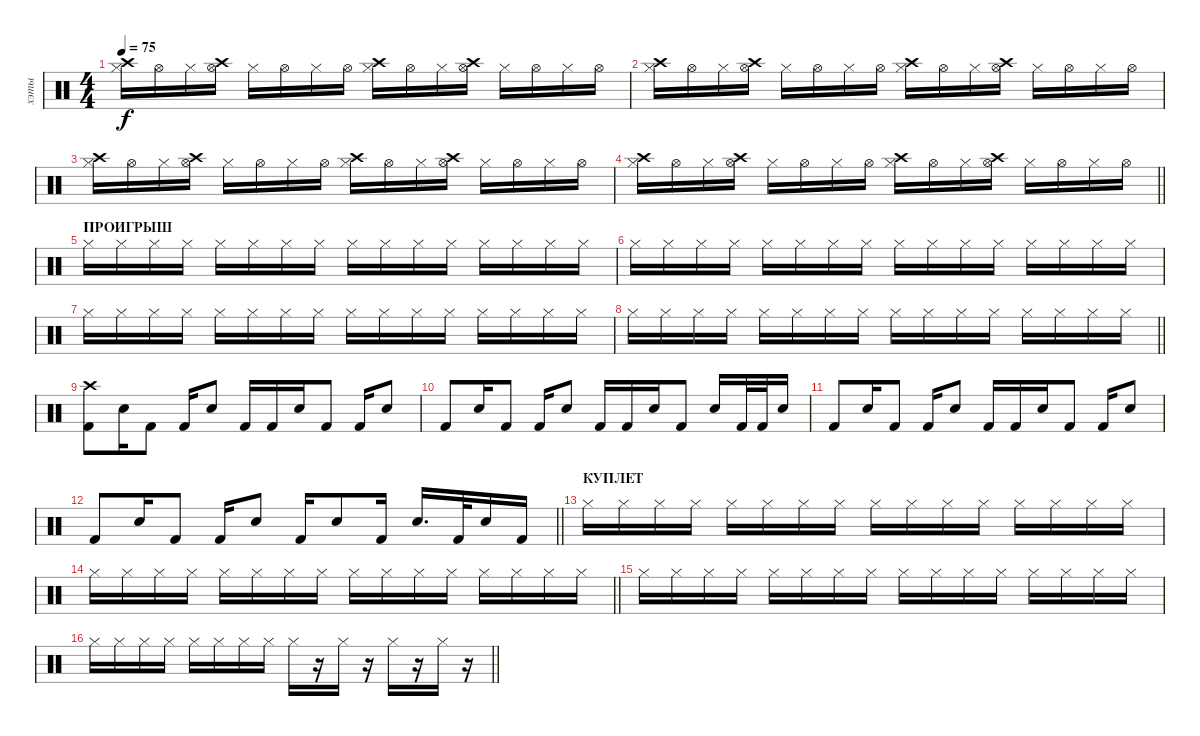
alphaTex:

\track ("хэты" "хэты") {instrument percussion}
\staff {score}
\articulation defaults
\ts (4 4)
\tempo 75
\clef neutral
\ks c
("Crash high (hit)" "Hi-Hat (closed)").16{dy f} "Hi-Hat (open)".16 "Hi-Hat (closed)".16 ("Hi-Hat (open)" "Crash high (hit)").16 "Hi-Hat (closed)".16 "Hi-Hat (open)".16 "Hi-Hat (closed)".16 "Hi-Hat (open)".16 ("Crash high (hit)" "Hi-Hat (closed)").16 "Hi-Hat (open)".16 "Hi-Hat (closed)".16 ("Hi-Hat (open)" "Crash high (hit)").16 "Hi-Hat (closed)".16 "Hi-Hat (open)".16 "Hi-Hat (closed)".16 "Hi-Hat (open)".16 |
("Crash high (hit)" "Hi-Hat (closed)").16 "Hi-Hat (open)".16 "Hi-Hat (closed)".16 ("Hi-Hat (open)" "Crash high (hit)").16 "Hi-Hat (closed)".16 "Hi-Hat (open)".16 "Hi-Hat (closed)".16 "Hi-Hat (open)".16 ("Crash high (hit)" "Hi-Hat (closed)").16 "Hi-Hat (open)".16 "Hi-Hat (closed)".16 ("Hi-Hat (open)" "Crash high (hit)").16 "Hi-Hat (closed)".16 "Hi-Hat (open)".16 "Hi-Hat (closed)".16 "Hi-Hat (open)".16 |
("Crash high (hit)" "Hi-Hat (closed)").16 "Hi-Hat (open)".16 "Hi-Hat (closed)".16 ("Hi-Hat (open)" "Crash high (hit)").16 "Hi-Hat (closed)".16 "Hi-Hat (open)".16 "Hi-Hat (closed)".16 "Hi-Hat (open)".16 ("Crash high (hit)" "Hi-Hat (closed)").16 "Hi-Hat (open)".16 "Hi-Hat (closed)".16 ("Hi-Hat (open)" "Crash high (hit)").16 "Hi-Hat (closed)".16 "Hi-Hat (open)".16 "Hi-Hat (closed)".16 "Hi-Hat (open)".16 |
\barLineRight lightlight
("Crash high (hit)" "Hi-Hat (closed)").16 "Hi-Hat (open)".16 "Hi-Hat (closed)".16 ("Hi-Hat (open)" "Crash high (hit)").16 "Hi-Hat (closed)".16 "Hi-Hat (open)".16 "Hi-Hat (closed)".16 "Hi-Hat (open)".16 ("Crash high (hit)" "Hi-Hat (closed)").16 "Hi-Hat (open)".16 "Hi-Hat (closed)".16 ("Hi-Hat (open)" "Crash high (hit)").16 "Hi-Hat (closed)".16 "Hi-Hat (open)".16 "Hi-Hat (closed)".16 "Hi-Hat (open)".16 |
\section ("" "ПРОИГРЫШ")
"Hi-Hat (closed)".16 "Hi-Hat (closed)".16 "Hi-Hat (closed)".16 "Hi-Hat (closed)".16 "Hi-Hat (closed)".16 "Hi-Hat (closed)".16 "Hi-Hat (closed)".16 "Hi-Hat (closed)".16 "Hi-Hat (closed)".16 "Hi-Hat (closed)".16 "Hi-Hat (closed)".16 "Hi-Hat (closed)".16 "Hi-Hat (closed)".16 "Hi-Hat (closed)".16 "Hi-Hat (closed)".16 "Hi-Hat (closed)".16 |
"Hi-Hat (closed)".16 "Hi-Hat (closed)".16 "Hi-Hat (closed)".16 "Hi-Hat (closed)".16 "Hi-Hat (closed)".16 "Hi-Hat (closed)".16 "Hi-Hat (closed)".16 "Hi-Hat (closed)".16 "Hi-Hat (closed)".16 "Hi-Hat (closed)".16 "Hi-Hat (closed)".16 "Hi-Hat (closed)".16 "Hi-Hat (closed)".16 "Hi-Hat (closed)".16 "Hi-Hat (closed)".16 "Hi-Hat (closed)".16 |
"Hi-Hat (closed)".16 "Hi-Hat (closed)".16 "Hi-Hat (closed)".16 "Hi-Hat (closed)".16 "Hi-Hat (closed)".16 "Hi-Hat (closed)".16 "Hi-Hat (closed)".16 "Hi-Hat (closed)".16 "Hi-Hat (closed)".16 "Hi-Hat (closed)".16 "Hi-Hat (closed)".16 "Hi-Hat (closed)".16 "Hi-Hat (closed)".16 "Hi-Hat (closed)".16 "Hi-Hat (closed)".16 "Hi-Hat (closed)".16 |
\barLineRight lightlight "Hi-Hat (closed)".16 "Hi-Hat (closed)".16 "Hi-Hat (closed)".16 "Hi-Hat (closed)".16 "Hi-Hat (closed)".16 "Hi-Hat (closed)".16 "Hi-Hat (closed)".16 "Hi-Hat (closed)".16 "Hi-Hat (closed)".16 "Hi-Hat (closed)".16 "Hi-Hat (closed)".16 "Hi-Hat (closed)".16 "Hi-Hat (closed)".16 "Hi-Hat (closed)".16 "Hi-Hat (closed)".16 "Hi-Hat (closed)".16
|
("Crash high (hit)" "Kick (hit) 2").8 "Electric Snare (hit)".16 "Kick (hit) 2".8 "Kick (hit) 2".16 "Electric Snare (hit)".8 "Kick (hit) 2".16 "Kick (hit) 2".16 "Electric Snare (hit)".16 "Kick (hit) 2".8 "Kick (hit) 2".16 "Electric Snare (hit)".8 |
"Kick (hit) 2".8 "Electric Snare (hit)".16 "Kick (hit) 2".8 "Kick (hit) 2".16 "Electric Snare (hit)".8 "Kick (hit) 2".16 "Kick (hit) 2".16 "Electric Snare (hit)".16 "Kick (hit) 2".8 "Electric Snare (hit)".16 "Kick (hit) 2".32 "Kick (hit) 2".32 "Electric Snare (hit)".16 |
"Kick (hit) 2".8 "Electric Snare (hit)".16 "Kick (hit) 2".8 "Kick (hit) 2".16 "Electric Snare (hit)".8 "Kick (hit) 2".16 "Kick (hit) 2".16 "Electric Snare (hit)".16 "Kick (hit) 2".8 "Kick (hit) 2".16 "Electric Snare (hit)".8 |
\barLineRight lightlight "Kick (hit) 2".8 "Electric Snare (hit)".16 "Kick (hit) 2".8 "Kick (hit) 2".16 "Electric Snare (hit)".8 "Kick (hit) 2".16 "Electric Snare (hit)".8 "Kick (hit) 2".16 "Electric Snare (hit)".16{d} "Kick (hit) 2".32 "Electric Snare (hit)".16 "Kick (hit) 2".16
|
\section ("" "КУПЛЕТ")
"Hi-Hat (closed)".16 "Hi-Hat (closed)".16 "Hi-Hat (closed)".16 "Hi-Hat (closed)".16 "Hi-Hat (closed)".16 "Hi-Hat (closed)".16 "Hi-Hat (closed)".16 "Hi-Hat (closed)".16 "Hi-Hat (closed)".16 "Hi-Hat (closed)".16 "Hi-Hat (closed)".16 "Hi-Hat (closed)".16 "Hi-Hat (closed)".16 "Hi-Hat (closed)".16 "Hi-Hat (closed)".16 "Hi-Hat (closed)".16 |
\barLineRight lightlight "Hi-Hat (closed)".16 "Hi-Hat (closed)".16 "Hi-Hat (closed)".16 "Hi-Hat (closed)".16 "Hi-Hat (closed)".16 "Hi-Hat (closed)".16 "Hi-Hat (closed)".16 "Hi-Hat (closed)".16 "Hi-Hat (closed)".16 "Hi-Hat (closed)".16 "Hi-Hat (closed)".16 "Hi-Hat (closed)".16 "Hi-Hat (closed)".16 "Hi-Hat (closed)".16 "Hi-Hat (closed)".16 "Hi-Hat (closed)".16
|
"Hi-Hat (closed)".16 "Hi-Hat (closed)".16 "Hi-Hat (closed)".16 "Hi-Hat (closed)".16 "Hi-Hat (closed)".16 "Hi-Hat (closed)".16 "Hi-Hat (closed)".16 "Hi-Hat (closed)".16 "Hi-Hat (closed)".16 "Hi-Hat (closed)".16 "Hi-Hat (closed)".16 "Hi-Hat (closed)".16 "Hi-Hat (closed)".16 "Hi-Hat (closed)".16 "Hi-Hat (closed)".16 "Hi-Hat (closed)".16 |
\barLineRight lightlight "Hi-Hat (closed)".16 "Hi-Hat (closed)".16 "Hi-Hat (closed)".16 "Hi-Hat (closed)".16 "Hi-Hat (closed)".16 "Hi-Hat (closed)".16 "Hi-Hat (closed)".16 "Hi-Hat (closed)".16 "Hi-Hat (closed)".16
r.16 "Hi-Hat (closed)".16 r.16 "Hi-Hat (closed)".16 r.16 "Hi-Hat (closed)".16 r.16
